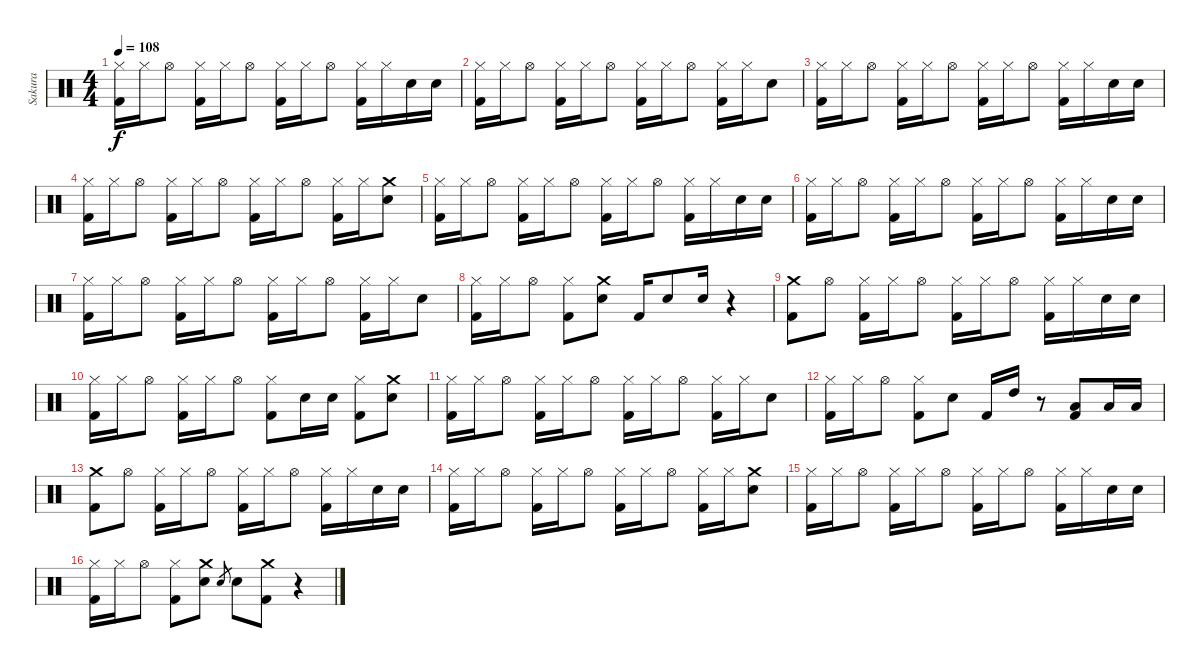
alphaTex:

\track ("Sakura" "Sakura") {instrument percussion}
\staff {score}
\articulation defaults
\ts (4 4)
\tempo 108
\clef neutral
\ks c
("Hi-Hat (closed)" "Kick (hit) 2").16{dy f} "Hi-Hat (closed)".16 "Hi-Hat (open)".8 ("Hi-Hat (closed)" "Kick (hit) 2").16 "Hi-Hat (closed)".16 "Hi-Hat (open)".8 ("Hi-Hat (closed)" "Kick (hit) 2").16 "Hi-Hat (closed)".16 "Hi-Hat (open)".8 ("Hi-Hat (closed)" "Kick (hit) 2").16 "Hi-Hat (closed)".16 "Snare (hit) 2".16 "Snare (hit) 2".16 |
("Hi-Hat (closed)" "Kick (hit) 2").16 "Hi-Hat (closed)".16 "Hi-Hat (open)".8 ("Hi-Hat (closed)" "Kick (hit) 2").16 "Hi-Hat (closed)".16 "Hi-Hat (open)".8 ("Hi-Hat (closed)" "Kick (hit) 2").16 "Hi-Hat (closed)".16 "Hi-Hat (open)".8 ("Hi-Hat (closed)" "Kick (hit) 2").16 "Hi-Hat (closed)".16 "Snare (hit) 2".8 |
("Hi-Hat (closed)" "Kick (hit) 2").16 "Hi-Hat (closed)".16 "Hi-Hat (open)".8 ("Hi-Hat (closed)" "Kick (hit) 2").16 "Hi-Hat (closed)".16 "Hi-Hat (open)".8 ("Hi-Hat (closed)" "Kick (hit) 2").16 "Hi-Hat (closed)".16 "Hi-Hat (open)".8 ("Hi-Hat (closed)" "Kick (hit) 2").16 "Hi-Hat (closed)".16 "Snare (hit) 2".16 "Snare (hit) 2".16 |
("Hi-Hat (closed)" "Kick (hit) 2").16 "Hi-Hat (closed)".16 "Hi-Hat (open)".8 ("Hi-Hat (closed)" "Kick (hit) 2").16 "Hi-Hat (closed)".16 "Hi-Hat (open)".8 ("Hi-Hat (closed)" "Kick (hit) 2").16 "Hi-Hat (closed)".16 "Hi-Hat (open)".8 ("Hi-Hat (closed)" "Kick (hit) 2").16 "Hi-Hat (closed)".16 ("Crash medium (hit)" "Snare (hit) 2").8 |
("Hi-Hat (closed)" "Kick (hit) 2").16 "Hi-Hat (closed)".16 "Hi-Hat (open)".8 ("Hi-Hat (closed)" "Kick (hit) 2").16 "Hi-Hat (closed)".16 "Hi-Hat (open)".8 ("Hi-Hat (closed)" "Kick (hit) 2").16 "Hi-Hat (closed)".16 "Hi-Hat (open)".8 ("Hi-Hat (closed)" "Kick (hit) 2").16 "Hi-Hat (closed)".16 "Snare (hit) 2".16 "Snare (hit) 2".16 |
("Hi-Hat (closed)" "Kick (hit) 2").16 "Hi-Hat (closed)".16 "Hi-Hat (open)".8 ("Hi-Hat (closed)" "Kick (hit) 2").16 "Hi-Hat (closed)".16 "Hi-Hat (open)".8 ("Hi-Hat (closed)" "Kick (hit) 2").16 "Hi-Hat (closed)".16 "Hi-Hat (open)".8 ("Hi-Hat (closed)" "Kick (hit) 2").16 "Hi-Hat (closed)".16 "Snare (hit) 2".16 "Snare (hit) 2".16 |
("Hi-Hat (closed)" "Kick (hit) 2").16 "Hi-Hat (closed)".16 "Hi-Hat (open)".8 ("Hi-Hat (closed)" "Kick (hit) 2").16 "Hi-Hat (closed)".16 "Hi-Hat (open)".8 ("Hi-Hat (closed)" "Kick (hit) 2").16 "Hi-Hat (closed)".16 "Hi-Hat (open)".8 ("Hi-Hat (closed)" "Kick (hit) 2").16 "Hi-Hat (closed)".16 "Snare (hit) 2".8 |
("Hi-Hat (closed)" "Kick (hit) 2").16 "Hi-Hat (closed)".16 "Hi-Hat (open)".8 ("Hi-Hat (closed)" "Kick (hit) 2").8 ("Crash medium (hit)" "Snare (hit) 2").8 "Kick (hit) 2".16 "Snare (hit) 2".8 "Snare (hit) 2".16 r.4 |
("Crash medium (hit)" "Kick (hit) 2").8 "Hi-Hat (open)".8 ("Hi-Hat (closed)" "Kick (hit) 2").16 "Hi-Hat (closed)".16 "Hi-Hat (open)".8 ("Hi-Hat (closed)" "Kick (hit) 2").16 "Hi-Hat (closed)".16 "Hi-Hat (open)".8 ("Hi-Hat (closed)" "Kick (hit) 2").16 "Hi-Hat (closed)".16 "Snare (hit) 2".16 "Snare (hit) 2".16 |
("Hi-Hat (closed)" "Kick (hit) 2").16 "Hi-Hat (closed)".16 "Hi-Hat (open)".8 ("Hi-Hat (closed)" "Kick (hit) 2").16 "Hi-Hat (closed)".16 "Hi-Hat (open)".8 ("Hi-Hat (closed)" "Kick (hit) 2").8 "Snare (hit) 2".16 "Snare (hit) 2".16 ("Hi-Hat (closed)" "Kick (hit) 2").8 ("Crash medium (hit)" "Snare (hit) 2").8 |
("Hi-Hat (closed)" "Kick (hit) 2").16 "Hi-Hat (closed)".16 "Hi-Hat (open)".8 ("Hi-Hat (closed)" "Kick (hit) 2").16 "Hi-Hat (closed)".16 "Hi-Hat (open)".8 ("Hi-Hat (closed)" "Kick (hit) 2").16 "Hi-Hat (closed)".16 "Hi-Hat (open)".8 ("Hi-Hat (closed)" "Kick (hit) 2").16 "Hi-Hat (closed)".16 "Snare (hit) 2".8 |
("Hi-Hat (closed)" "Kick (hit) 2").16 "Hi-Hat (closed)".16 "Hi-Hat (open)".8 ("Hi-Hat (closed)" "Kick (hit) 2").8 "Snare (hit) 2".8 "Kick (hit) 2".16 "High Tom (hit)".16 r.8 ("Low Tom (hit)" "Kick (hit) 2").8 "Low Floor Tom (hit)".16 "Low Floor Tom (hit)".16 |
("Crash medium (hit)" "Kick (hit) 2").8 "Hi-Hat (open)".8 ("Hi-Hat (closed)" "Kick (hit) 2").16 "Hi-Hat (closed)".16 "Hi-Hat (open)".8 ("Hi-Hat (closed)" "Kick (hit) 2").16 "Hi-Hat (closed)".16 "Hi-Hat (open)".8 ("Hi-Hat (closed)" "Kick (hit) 2").16 "Hi-Hat (closed)".16 "Snare (hit) 2".16 "Snare (hit) 2".16 |
("Hi-Hat (closed)" "Kick (hit) 2").16 "Hi-Hat (closed)".16 "Hi-Hat (open)".8 ("Hi-Hat (closed)" "Kick (hit) 2").16 "Hi-Hat (closed)".16 "Hi-Hat (open)".8 ("Hi-Hat (closed)" "Kick (hit) 2").16 "Hi-Hat (closed)".16 "Hi-Hat (open)".8 ("Hi-Hat (closed)" "Kick (hit) 2").16 "Hi-Hat (closed)".16 ("Crash medium (hit)" "Snare (hit) 2").8 |
("Hi-Hat (closed)" "Kick (hit) 2").16 "Hi-Hat (closed)".16 "Hi-Hat (open)".8 ("Hi-Hat (closed)" "Kick (hit) 2").16 "Hi-Hat (closed)".16 "Hi-Hat (open)".8 ("Hi-Hat (closed)" "Kick (hit) 2").16 "Hi-Hat (closed)".16 "Hi-Hat (open)".8 ("Hi-Hat (closed)" "Kick (hit) 2").16 "Hi-Hat (closed)".16 "Snare (hit) 2".16 "Snare (hit) 2".16 |
("Hi-Hat (closed)" "Kick (hit) 2").16 "Hi-Hat (closed)".16 "Hi-Hat (open)".8 ("Hi-Hat (closed)" "Kick (hit) 2").8 ("Crash medium (hit)" "Snare (hit) 2").8 "Snare (hit) 2".8{gr} "Snare (hit) 2".8 ("Crash medium (hit)" "Kick (hit) 2").8 r.4
